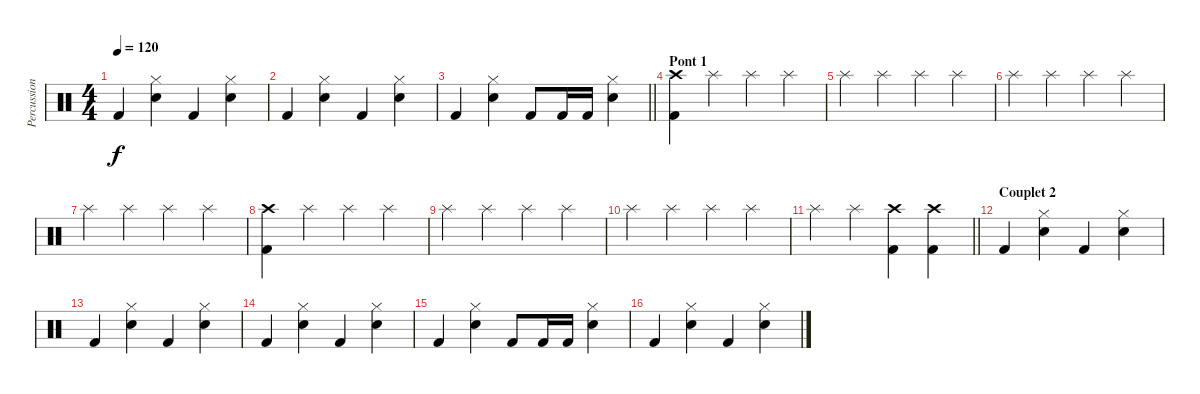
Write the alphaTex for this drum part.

\track ("Percussions" "Percussion") {instrument percussion}
\staff {score}
\articulation defaults
\ts (4 4)
\tempo 120
\clef neutral
\ks c "Kick (hit) 2".4{dy f}
("Hi-Hat (closed)" "Snare (hit) 2").4 "Kick (hit) 2".4 ("Hi-Hat (closed)" "Snare (hit) 2").4 |
"Kick (hit) 2".4 ("Hi-Hat (closed)" "Snare (hit) 2").4 "Kick (hit) 2".4 ("Hi-Hat (closed)" "Snare (hit) 2").4 |
\barLineRight lightlight "Kick (hit) 2".4
("Hi-Hat (closed)" "Snare (hit) 2").4 "Kick (hit) 2".8 "Kick (hit) 2".16 "Kick (hit) 2".16 ("Hi-Hat (closed)" "Snare (hit) 2").4 |
\section ("" "Pont 1")
("Crash high (hit)" "Kick (hit) 2").4 "Splash (hit)".4 "Splash (hit)".4 "Splash (hit)".4 |
"Splash (hit)".4 "Splash (hit)".4 "Splash (hit)".4 "Splash (hit)".4 |
"Splash (hit)".4 "Splash (hit)".4 "Splash (hit)".4 "Splash (hit)".4 |
"Splash (hit)".4 "Splash (hit)".4 "Splash (hit)".4 "Splash (hit)".4 |
("Crash high (hit)" "Kick (hit) 2").4 "Splash (hit)".4 "Splash (hit)".4 "Splash (hit)".4 |
"Splash (hit)".4 "Splash (hit)".4 "Splash (hit)".4 "Splash (hit)".4 |
"Splash (hit)".4 "Splash (hit)".4 "Splash (hit)".4 "Splash (hit)".4 |
\barLineRight lightlight "Splash (hit)".4 "Splash (hit)".4
("Crash high (hit)" "Kick (hit) 2").4 ("Crash high (hit)" "Kick (hit) 2").4 |
\section ("" "Couplet 2")
"Kick (hit) 2".4 ("Hi-Hat (closed)" "Snare (hit) 2").4 "Kick (hit) 2".4 ("Hi-Hat (closed)" "Snare (hit) 2").4 |
"Kick (hit) 2".4 ("Hi-Hat (closed)" "Snare (hit) 2").4 "Kick (hit) 2".4 ("Hi-Hat (closed)" "Snare (hit) 2").4 |
"Kick (hit) 2".4 ("Hi-Hat (closed)" "Snare (hit) 2").4 "Kick (hit) 2".4 ("Hi-Hat (closed)" "Snare (hit) 2").4 |
"Kick (hit) 2".4 ("Hi-Hat (closed)" "Snare (hit) 2").4 "Kick (hit) 2".8 "Kick (hit) 2".16 "Kick (hit) 2".16 ("Hi-Hat (closed)" "Snare (hit) 2").4 |
"Kick (hit) 2".4 ("Hi-Hat (closed)" "Snare (hit) 2").4 "Kick (hit) 2".4 ("Hi-Hat (closed)" "Snare (hit) 2").4
